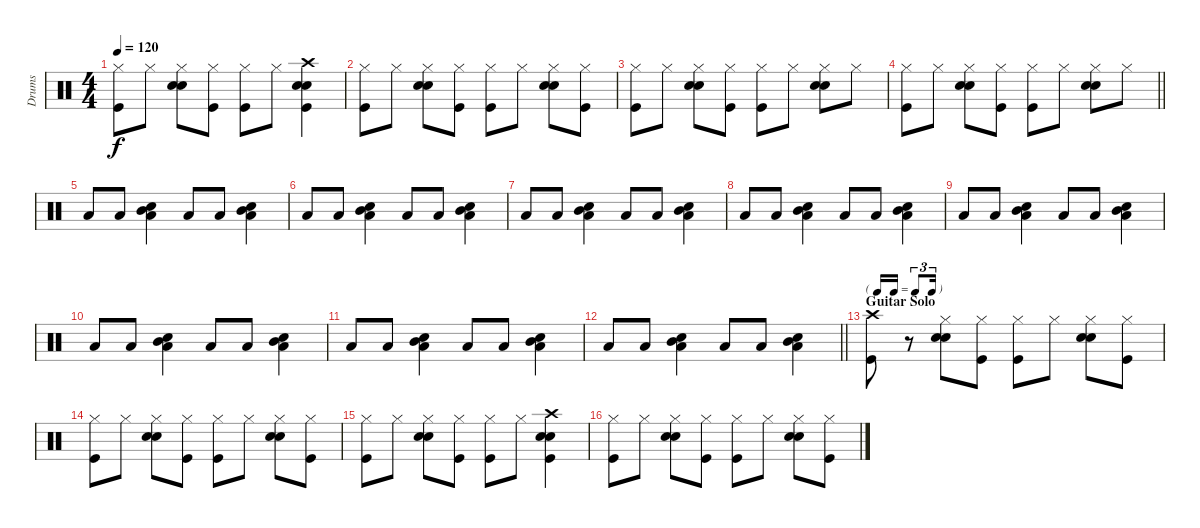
\track ("Drums" "Drums") {instrument percussion}
\staff {score}
\articulation defaults
\ts (4 4)
\tempo 120
\clef neutral
\ks c
("Hi-Hat (closed)" "Kick (hit)").8{dy f} "Hi-Hat (closed)".8 ("Hi-Hat (closed)" "Snare (hit) 2" "Hand Clap (hit)").8 ("Hi-Hat (closed)" "Kick (hit)").8 ("Hi-Hat (closed)" "Kick (hit)").8 "Hi-Hat (closed)".8 ("Crash high (hit)" "Snare (hit) 2" "Hand Clap (hit)" "Kick (hit)").4 |
("Hi-Hat (closed)" "Kick (hit)").8 "Hi-Hat (closed)".8 ("Hi-Hat (closed)" "Snare (hit) 2" "Hand Clap (hit)").8 ("Hi-Hat (closed)" "Kick (hit)").8 ("Hi-Hat (closed)" "Kick (hit)").8 "Hi-Hat (closed)".8 ("Hi-Hat (closed)" "Snare (hit) 2" "Hand Clap (hit)").8 ("Hi-Hat (closed)" "Kick (hit)").8 |
("Hi-Hat (closed)" "Kick (hit)").8 "Hi-Hat (closed)".8 ("Hi-Hat (closed)" "Snare (hit) 2" "Hand Clap (hit)").8 ("Hi-Hat (closed)" "Kick (hit)").8 ("Hi-Hat (closed)" "Kick (hit)").8 "Hi-Hat (closed)".8 ("Hi-Hat (closed)" "Snare (hit) 2" "Hand Clap (hit)").8 "Hi-Hat (closed)".8 |
\barLineRight lightlight
("Hi-Hat (closed)" "Kick (hit)").8 "Hi-Hat (closed)".8 ("Hi-Hat (closed)" "Snare (hit) 2" "Hand Clap (hit)").8 ("Hi-Hat (closed)" "Kick (hit)").8 ("Hi-Hat (closed)" "Kick (hit)").8 "Hi-Hat (closed)".8 ("Hi-Hat (closed)" "Snare (hit) 2" "Hand Clap (hit)").8 "Hi-Hat (closed)".8 |
"Low Tom (hit)".8 "Low Tom (hit)".8 ("Hand Clap (hit)" "Mid Tom (hit)" "Low Tom (hit)").4 "Low Tom (hit)".8 "Low Tom (hit)".8 ("Hand Clap (hit)" "Mid Tom (hit)" "Low Tom (hit)").4 |
"Low Tom (hit)".8 "Low Tom (hit)".8 ("Hand Clap (hit)" "Mid Tom (hit)" "Low Tom (hit)").4 "Low Tom (hit)".8 "Low Tom (hit)".8 ("Hand Clap (hit)" "Mid Tom (hit)" "Low Tom (hit)").4 |
"Low Tom (hit)".8 "Low Tom (hit)".8 ("Hand Clap (hit)" "Mid Tom (hit)" "Low Tom (hit)").4 "Low Tom (hit)".8 "Low Tom (hit)".8 ("Hand Clap (hit)" "Mid Tom (hit)" "Low Tom (hit)").4 |
"Low Tom (hit)".8 "Low Tom (hit)".8 ("Hand Clap (hit)" "Mid Tom (hit)" "Low Tom (hit)").4 "Low Tom (hit)".8 "Low Tom (hit)".8 ("Hand Clap (hit)" "Mid Tom (hit)" "Low Tom (hit)").4 |
"Low Tom (hit)".8 "Low Tom (hit)".8 ("Hand Clap (hit)" "Mid Tom (hit)" "Low Tom (hit)").4 "Low Tom (hit)".8 "Low Tom (hit)".8 ("Hand Clap (hit)" "Mid Tom (hit)" "Low Tom (hit)").4 |
"Low Tom (hit)".8 "Low Tom (hit)".8 ("Hand Clap (hit)" "Mid Tom (hit)" "Low Tom (hit)").4 "Low Tom (hit)".8 "Low Tom (hit)".8 ("Hand Clap (hit)" "Mid Tom (hit)" "Low Tom (hit)").4 |
"Low Tom (hit)".8 "Low Tom (hit)".8 ("Hand Clap (hit)" "Mid Tom (hit)" "Low Tom (hit)").4 "Low Tom (hit)".8 "Low Tom (hit)".8 ("Hand Clap (hit)" "Mid Tom (hit)" "Low Tom (hit)").4 |
\barLineRight lightlight "Low Tom (hit)".8 "Low Tom (hit)".8
("Hand Clap (hit)" "Mid Tom (hit)" "Low Tom (hit)").4 "Low Tom (hit)".8 "Low Tom (hit)".8 ("Hand Clap (hit)" "Mid Tom (hit)" "Low Tom (hit)").4 |
\tf triplet16th
\section ("" "Guitar Solo")
("Crash high (hit)" "Kick (hit)").8 r.8 ("Hi-Hat (closed)" "Snare (hit) 2" "Hand Clap (hit)").8 ("Hi-Hat (closed)" "Kick (hit)").8 ("Hi-Hat (closed)" "Kick (hit)").8 "Hi-Hat (closed)".8 ("Hi-Hat (closed)" "Snare (hit) 2" "Hand Clap (hit)").8 ("Hi-Hat (closed)" "Kick (hit)").8 |
("Hi-Hat (closed)" "Kick (hit)").8 "Hi-Hat (closed)".8 ("Hi-Hat (closed)" "Snare (hit) 2" "Hand Clap (hit)").8 ("Hi-Hat (closed)" "Kick (hit)").8 ("Hi-Hat (closed)" "Kick (hit)").8 "Hi-Hat (closed)".8 ("Hi-Hat (closed)" "Snare (hit) 2" "Hand Clap (hit)").8 ("Hi-Hat (closed)" "Kick (hit)").8 |
("Hi-Hat (closed)" "Kick (hit)").8 "Hi-Hat (closed)".8 ("Hi-Hat (closed)" "Snare (hit) 2" "Hand Clap (hit)").8 ("Hi-Hat (closed)" "Kick (hit)").8 ("Hi-Hat (closed)" "Kick (hit)").8 "Hi-Hat (closed)".8 ("Crash high (hit)" "Snare (hit) 2" "Hand Clap (hit)" "Kick (hit)").4 |
("Hi-Hat (closed)" "Kick (hit)").8 "Hi-Hat (closed)".8 ("Hi-Hat (closed)" "Snare (hit) 2" "Hand Clap (hit)").8 ("Hi-Hat (closed)" "Kick (hit)").8 ("Hi-Hat (closed)" "Kick (hit)").8 "Hi-Hat (closed)".8 ("Hi-Hat (closed)" "Snare (hit) 2" "Hand Clap (hit)").8 ("Hi-Hat (closed)" "Kick (hit)").8
